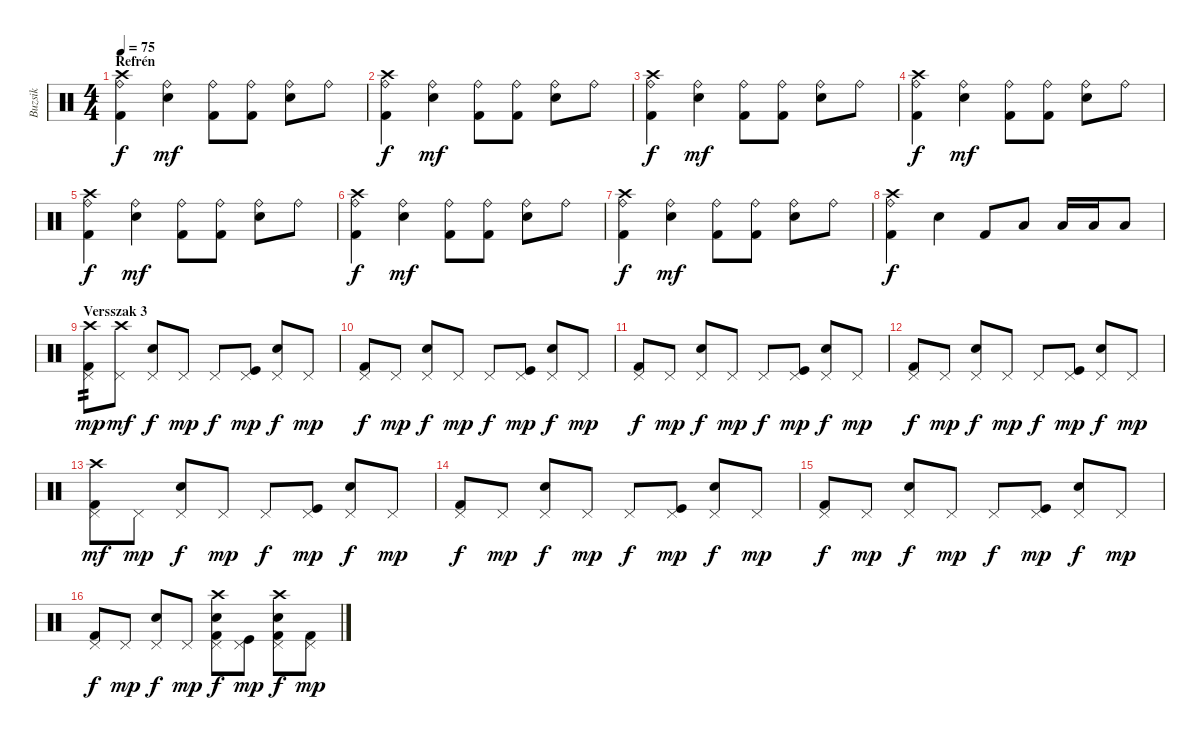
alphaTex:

\track ("Buzsik" "Buzsik") {instrument percussion}
\staff {score}
\articulation defaults
\ts (4 4)
\section ("" "Refrén")
\tempo 75
\clef neutral
\ks c
("Crash high (hit)" "Ride (bell)" "Kick (hit) 2").4{dy f} ("Ride (bell)" "Snare (hit) 2").4{dy mf} ("Ride (bell)" "Kick (hit) 2").8 ("Ride (bell)" "Kick (hit) 2").8 ("Ride (bell)" "Snare (hit) 2").8 "Ride (bell)".8 |
("Crash high (hit)" "Ride (bell)" "Kick (hit) 2").4{dy f} ("Ride (bell)" "Snare (hit) 2").4{dy mf} ("Ride (bell)" "Kick (hit) 2").8 ("Ride (bell)" "Kick (hit) 2").8 ("Ride (bell)" "Snare (hit) 2").8 "Ride (bell)".8 |
("Crash high (hit)" "Ride (bell)" "Kick (hit) 2").4{dy f} ("Ride (bell)" "Snare (hit) 2").4{dy mf} ("Ride (bell)" "Kick (hit) 2").8 ("Ride (bell)" "Kick (hit) 2").8 ("Ride (bell)" "Snare (hit) 2").8 "Ride (bell)".8 |
("Crash high (hit)" "Ride (bell)" "Kick (hit) 2").4{dy f} ("Ride (bell)" "Snare (hit) 2").4{dy mf} ("Ride (bell)" "Kick (hit) 2").8 ("Ride (bell)" "Kick (hit) 2").8 ("Ride (bell)" "Snare (hit) 2").8 "Ride (bell)".8 |
("Crash high (hit)" "Ride (bell)" "Kick (hit) 2").4{dy f} ("Ride (bell)" "Snare (hit) 2").4{dy mf} ("Ride (bell)" "Kick (hit) 2").8 ("Ride (bell)" "Kick (hit) 2").8 ("Ride (bell)" "Snare (hit) 2").8 "Ride (bell)".8 |
("Crash high (hit)" "Ride (bell)" "Kick (hit) 2").4{dy f} ("Ride (bell)" "Snare (hit) 2").4{dy mf} ("Ride (bell)" "Kick (hit) 2").8 ("Ride (bell)" "Kick (hit) 2").8 ("Ride (bell)" "Snare (hit) 2").8 "Ride (bell)".8 |
("Crash high (hit)" "Ride (bell)" "Kick (hit) 2").4{dy f} ("Ride (bell)" "Snare (hit) 2").4{dy mf} ("Ride (bell)" "Kick (hit) 2").8 ("Ride (bell)" "Kick (hit) 2").8 ("Ride (bell)" "Snare (hit) 2").8 "Ride (bell)".8 |
("Crash high (hit)" "Ride (bell)" "Kick (hit) 2").4{dy f} "Snare (hit) 2".4 "Kick (hit) 2".8 "Low Floor Tom (hit)".8 "Low Floor Tom (hit)".16 "Low Floor Tom (hit)".16 "Low Floor Tom (hit)".8 |
\section ("" "Versszak 3")
("Pedal Hi-Hat (hit)" "Crash high (hit)" "Kick (hit) 2").8{tp 2 dy mp} ("Pedal Hi-Hat (hit)" "Crash high (hit)").8{dy mf} ("Pedal Hi-Hat (hit)" "Snare (hit) 2").8{dy f} "Pedal Hi-Hat (hit)".8{dy mp} "Pedal Hi-Hat (hit)".8{dy f} ("Pedal Hi-Hat (hit)" "Kick (hit)").8{dy mp} ("Pedal Hi-Hat (hit)" "Snare (hit) 2").8{dy f} "Pedal Hi-Hat (hit)".8{dy mp} |
("Pedal Hi-Hat (hit)" "Kick (hit) 2").8{dy f} "Pedal Hi-Hat (hit)".8{dy mp} ("Pedal Hi-Hat (hit)" "Snare (hit) 2").8{dy f} "Pedal Hi-Hat (hit)".8{dy mp} "Pedal Hi-Hat (hit)".8{dy f} ("Pedal Hi-Hat (hit)" "Kick (hit)").8{dy mp} ("Pedal Hi-Hat (hit)" "Snare (hit) 2").8{dy f} "Pedal Hi-Hat (hit)".8{dy mp} |
("Pedal Hi-Hat (hit)" "Kick (hit) 2").8{dy f} "Pedal Hi-Hat (hit)".8{dy mp} ("Pedal Hi-Hat (hit)" "Snare (hit) 2").8{dy f} "Pedal Hi-Hat (hit)".8{dy mp} "Pedal Hi-Hat (hit)".8{dy f} ("Pedal Hi-Hat (hit)" "Kick (hit)").8{dy mp} ("Pedal Hi-Hat (hit)" "Snare (hit) 2").8{dy f} "Pedal Hi-Hat (hit)".8{dy mp} |
("Pedal Hi-Hat (hit)" "Kick (hit) 2").8{dy f} "Pedal Hi-Hat (hit)".8{dy mp} ("Pedal Hi-Hat (hit)" "Snare (hit) 2").8{dy f} "Pedal Hi-Hat (hit)".8{dy mp} "Pedal Hi-Hat (hit)".8{dy f} ("Pedal Hi-Hat (hit)" "Kick (hit)").8{dy mp} ("Pedal Hi-Hat (hit)" "Snare (hit) 2").8{dy f} "Pedal Hi-Hat (hit)".8{dy mp} |
("Pedal Hi-Hat (hit)" "Crash high (hit)" "Kick (hit) 2").8{dy mf} "Pedal Hi-Hat (hit)".8{dy mp} ("Pedal Hi-Hat (hit)" "Snare (hit) 2").8{dy f} "Pedal Hi-Hat (hit)".8{dy mp} "Pedal Hi-Hat (hit)".8{dy f} ("Pedal Hi-Hat (hit)" "Kick (hit)").8{dy mp} ("Pedal Hi-Hat (hit)" "Snare (hit) 2").8{dy f} "Pedal Hi-Hat (hit)".8{dy mp} |
("Pedal Hi-Hat (hit)" "Kick (hit) 2").8{dy f} "Pedal Hi-Hat (hit)".8{dy mp} ("Pedal Hi-Hat (hit)" "Snare (hit) 2").8{dy f} "Pedal Hi-Hat (hit)".8{dy mp} "Pedal Hi-Hat (hit)".8{dy f} ("Pedal Hi-Hat (hit)" "Kick (hit)").8{dy mp} ("Pedal Hi-Hat (hit)" "Snare (hit) 2").8{dy f} "Pedal Hi-Hat (hit)".8{dy mp} |
("Pedal Hi-Hat (hit)" "Kick (hit) 2").8{dy f} "Pedal Hi-Hat (hit)".8{dy mp} ("Pedal Hi-Hat (hit)" "Snare (hit) 2").8{dy f} "Pedal Hi-Hat (hit)".8{dy mp} "Pedal Hi-Hat (hit)".8{dy f} ("Pedal Hi-Hat (hit)" "Kick (hit)").8{dy mp} ("Pedal Hi-Hat (hit)" "Snare (hit) 2").8{dy f} "Pedal Hi-Hat (hit)".8{dy mp} |
("Pedal Hi-Hat (hit)" "Kick (hit) 2").8{dy f} "Pedal Hi-Hat (hit)".8{dy mp} ("Pedal Hi-Hat (hit)" "Snare (hit) 2").8{dy f} "Pedal Hi-Hat (hit)".8{dy mp} ("Pedal Hi-Hat (hit)" "Crash high (hit)" "Snare (hit) 2" "Kick (hit) 2").8{dy f} ("Pedal Hi-Hat (hit)" "Kick (hit)").8{dy mp} ("Pedal Hi-Hat (hit)" "Crash high (hit)" "Snare (hit) 2" "Kick (hit) 2").8{dy f} ("Pedal Hi-Hat (hit)" "Kick (hit) 2").8{dy mp}
